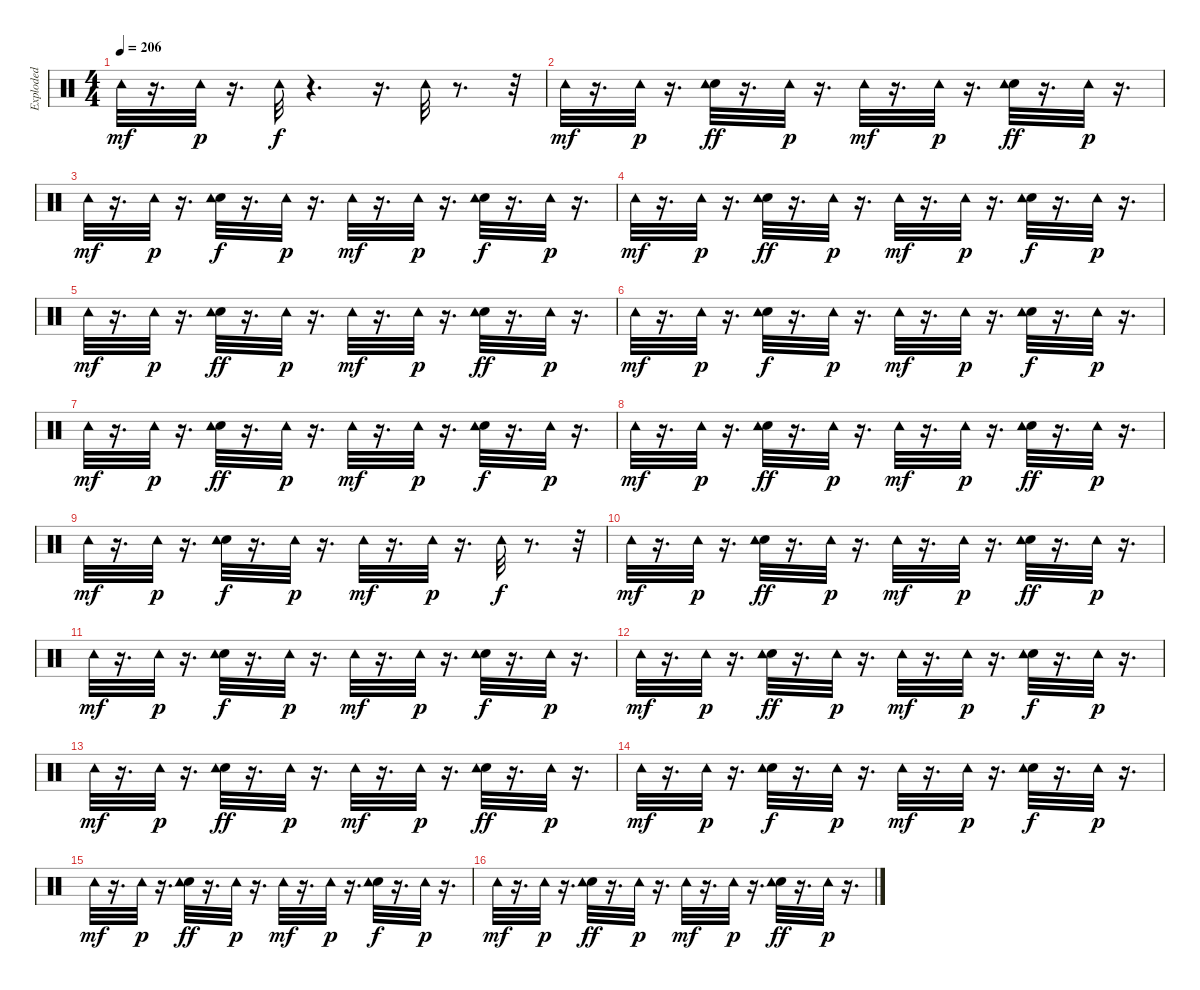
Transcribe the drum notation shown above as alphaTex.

\track ("Exploded" "Exploded") {instrument percussion}
\staff {score}
\articulation defaults
\ts (4 4)
\tempo 206
\clef neutral
\ks c "Tambourine (hit)".32{dy mf}
r.16{d} "Tambourine (hit)".32{dy p} r.16{d} "Tambourine (hit)".32{dy f} r.4{d} r.16{d} "Tambourine (hit)".32 r.8{d} r.32 |
"Tambourine (hit)".32{dy mf} r.16{d} "Tambourine (hit)".32{dy p} r.16{d} ("Hand Clap (hit)" "Tambourine (hit)").32{dy ff} r.16{d} "Tambourine (hit)".32{dy p} r.16{d} "Tambourine (hit)".32{dy mf} r.16{d} "Tambourine (hit)".32{dy p} r.16{d} ("Hand Clap (hit)" "Tambourine (hit)").32{dy ff} r.16{d} "Tambourine (hit)".32{dy p} r.16{d} |
"Tambourine (hit)".32{dy mf} r.16{d} "Tambourine (hit)".32{dy p} r.16{d} ("Hand Clap (hit)" "Tambourine (hit)").32{dy f} r.16{d} "Tambourine (hit)".32{dy p} r.16{d} "Tambourine (hit)".32{dy mf} r.16{d} "Tambourine (hit)".32{dy p} r.16{d} ("Hand Clap (hit)" "Tambourine (hit)").32{dy f} r.16{d} "Tambourine (hit)".32{dy p} r.16{d} |
"Tambourine (hit)".32{dy mf} r.16{d} "Tambourine (hit)".32{dy p} r.16{d} ("Hand Clap (hit)" "Tambourine (hit)").32{dy ff} r.16{d} "Tambourine (hit)".32{dy p} r.16{d} "Tambourine (hit)".32{dy mf} r.16{d} "Tambourine (hit)".32{dy p} r.16{d} ("Hand Clap (hit)" "Tambourine (hit)").32{dy f} r.16{d} "Tambourine (hit)".32{dy p} r.16{d} |
"Tambourine (hit)".32{dy mf} r.16{d} "Tambourine (hit)".32{dy p} r.16{d} ("Hand Clap (hit)" "Tambourine (hit)").32{dy ff} r.16{d} "Tambourine (hit)".32{dy p} r.16{d} "Tambourine (hit)".32{dy mf} r.16{d} "Tambourine (hit)".32{dy p} r.16{d} ("Hand Clap (hit)" "Tambourine (hit)").32{dy ff} r.16{d} "Tambourine (hit)".32{dy p} r.16{d} |
"Tambourine (hit)".32{dy mf} r.16{d} "Tambourine (hit)".32{dy p} r.16{d} ("Hand Clap (hit)" "Tambourine (hit)").32{dy f} r.16{d} "Tambourine (hit)".32{dy p} r.16{d} "Tambourine (hit)".32{dy mf} r.16{d} "Tambourine (hit)".32{dy p} r.16{d} ("Hand Clap (hit)" "Tambourine (hit)").32{dy f} r.16{d} "Tambourine (hit)".32{dy p} r.16{d} |
"Tambourine (hit)".32{dy mf} r.16{d} "Tambourine (hit)".32{dy p} r.16{d} ("Hand Clap (hit)" "Tambourine (hit)").32{dy ff} r.16{d} "Tambourine (hit)".32{dy p} r.16{d} "Tambourine (hit)".32{dy mf} r.16{d} "Tambourine (hit)".32{dy p} r.16{d} ("Hand Clap (hit)" "Tambourine (hit)").32{dy f} r.16{d} "Tambourine (hit)".32{dy p} r.16{d} |
"Tambourine (hit)".32{dy mf} r.16{d} "Tambourine (hit)".32{dy p} r.16{d} ("Hand Clap (hit)" "Tambourine (hit)").32{dy ff} r.16{d} "Tambourine (hit)".32{dy p} r.16{d} "Tambourine (hit)".32{dy mf} r.16{d} "Tambourine (hit)".32{dy p} r.16{d} ("Hand Clap (hit)" "Tambourine (hit)").32{dy ff} r.16{d} "Tambourine (hit)".32{dy p} r.16{d} |
"Tambourine (hit)".32{dy mf} r.16{d} "Tambourine (hit)".32{dy p} r.16{d} ("Hand Clap (hit)" "Tambourine (hit)").32{dy f} r.16{d} "Tambourine (hit)".32{dy p} r.16{d} "Tambourine (hit)".32{dy mf} r.16{d} "Tambourine (hit)".32{dy p} r.16{d} "Tambourine (hit)".32{dy f} r.8{d} r.32 |
"Tambourine (hit)".32{dy mf} r.16{d} "Tambourine (hit)".32{dy p} r.16{d} ("Hand Clap (hit)" "Tambourine (hit)").32{dy ff} r.16{d} "Tambourine (hit)".32{dy p} r.16{d} "Tambourine (hit)".32{dy mf} r.16{d} "Tambourine (hit)".32{dy p} r.16{d} ("Hand Clap (hit)" "Tambourine (hit)").32{dy ff} r.16{d} "Tambourine (hit)".32{dy p} r.16{d} |
"Tambourine (hit)".32{dy mf} r.16{d} "Tambourine (hit)".32{dy p} r.16{d} ("Hand Clap (hit)" "Tambourine (hit)").32{dy f} r.16{d} "Tambourine (hit)".32{dy p} r.16{d} "Tambourine (hit)".32{dy mf} r.16{d} "Tambourine (hit)".32{dy p} r.16{d} ("Hand Clap (hit)" "Tambourine (hit)").32{dy f} r.16{d} "Tambourine (hit)".32{dy p} r.16{d} |
"Tambourine (hit)".32{dy mf} r.16{d} "Tambourine (hit)".32{dy p} r.16{d} ("Hand Clap (hit)" "Tambourine (hit)").32{dy ff} r.16{d} "Tambourine (hit)".32{dy p} r.16{d} "Tambourine (hit)".32{dy mf} r.16{d} "Tambourine (hit)".32{dy p} r.16{d} ("Hand Clap (hit)" "Tambourine (hit)").32{dy f} r.16{d} "Tambourine (hit)".32{dy p} r.16{d} |
"Tambourine (hit)".32{dy mf} r.16{d} "Tambourine (hit)".32{dy p} r.16{d} ("Hand Clap (hit)" "Tambourine (hit)").32{dy ff} r.16{d} "Tambourine (hit)".32{dy p} r.16{d} "Tambourine (hit)".32{dy mf} r.16{d} "Tambourine (hit)".32{dy p} r.16{d} ("Hand Clap (hit)" "Tambourine (hit)").32{dy ff} r.16{d} "Tambourine (hit)".32{dy p} r.16{d} |
"Tambourine (hit)".32{dy mf} r.16{d} "Tambourine (hit)".32{dy p} r.16{d} ("Hand Clap (hit)" "Tambourine (hit)").32{dy f} r.16{d} "Tambourine (hit)".32{dy p} r.16{d} "Tambourine (hit)".32{dy mf} r.16{d} "Tambourine (hit)".32{dy p} r.16{d} ("Hand Clap (hit)" "Tambourine (hit)").32{dy f} r.16{d} "Tambourine (hit)".32{dy p} r.16{d} |
"Tambourine (hit)".32{dy mf} r.16{d} "Tambourine (hit)".32{dy p} r.16{d} ("Hand Clap (hit)" "Tambourine (hit)").32{dy ff} r.16{d} "Tambourine (hit)".32{dy p} r.16{d} "Tambourine (hit)".32{dy mf} r.16{d} "Tambourine (hit)".32{dy p} r.16{d} ("Hand Clap (hit)" "Tambourine (hit)").32{dy f} r.16{d} "Tambourine (hit)".32{dy p} r.16{d} |
"Tambourine (hit)".32{dy mf} r.16{d} "Tambourine (hit)".32{dy p} r.16{d} ("Hand Clap (hit)" "Tambourine (hit)").32{dy ff} r.16{d} "Tambourine (hit)".32{dy p} r.16{d} "Tambourine (hit)".32{dy mf} r.16{d} "Tambourine (hit)".32{dy p} r.16{d} ("Hand Clap (hit)" "Tambourine (hit)").32{dy ff} r.16{d} "Tambourine (hit)".32{dy p} r.16{d}
